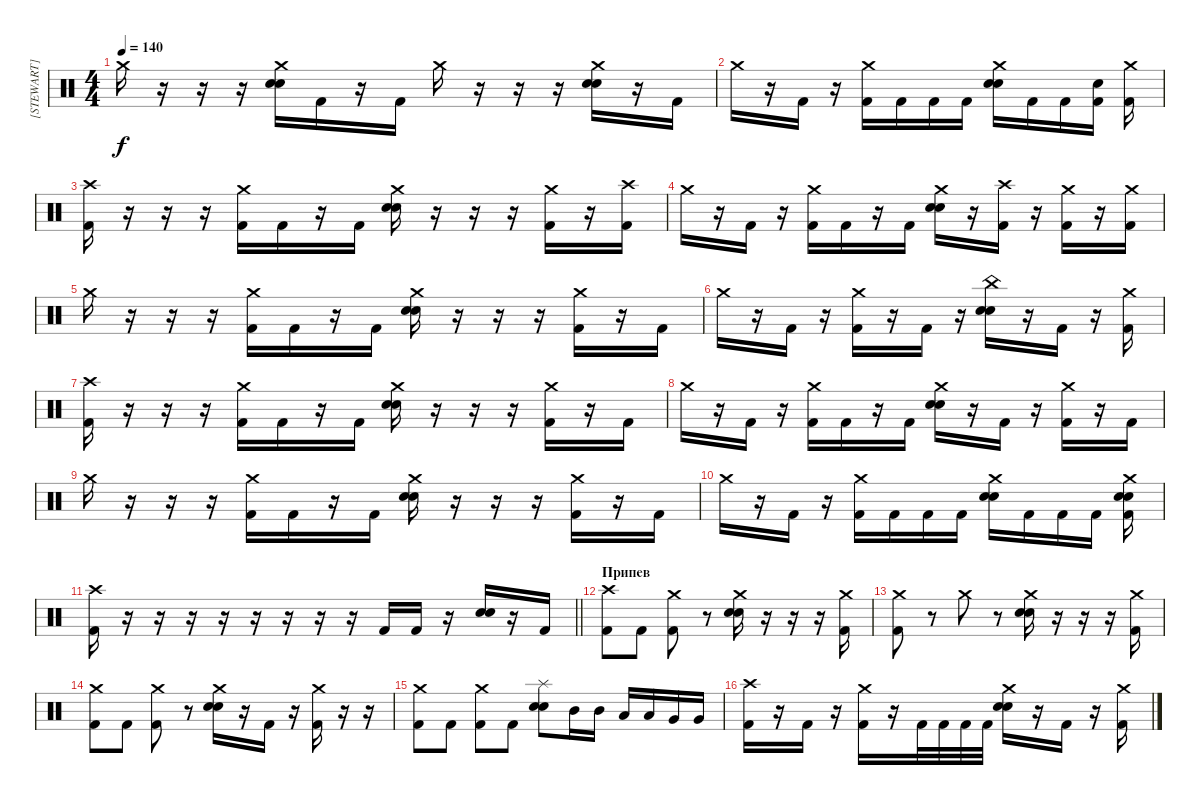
\track ("[STEWART]" "[STEWART]") {instrument percussion}
\staff {score}
\articulation defaults
\ts (4 4)
\tempo 140
\clef neutral
\ks c "Crash medium (hit)".16{dy f}
r.16 r.16 r.16 ("Crash medium (hit)" "Electric Snare (hit)" "Snare (hit) 2").16 "Kick (hit) 2".16 r.16 "Kick (hit) 2".16 "Crash medium (hit)".16 r.16 r.16 r.16 ("Crash medium (hit)" "Electric Snare (hit)" "Snare (hit) 2").16 r.16 "Kick (hit) 2".16 |
"Crash medium (hit)".16 r.16 "Kick (hit) 2".16 r.16 ("Crash medium (hit)" "Kick (hit) 2").16 "Kick (hit) 2".16 "Kick (hit) 2".16 "Kick (hit) 2".16 ("Crash medium (hit)" "Electric Snare (hit)" "Snare (hit) 2").16 "Kick (hit) 2".16 "Kick (hit) 2".16 ("Snare (hit) 2" "Kick (hit) 2").16 ("Crash medium (hit)" "Kick (hit) 2").16 |
("Crash high (hit)" "Kick (hit) 2").16 r.16 r.16 r.16 ("Crash medium (hit)" "Kick (hit) 2").16 "Kick (hit) 2".16 r.16 "Kick (hit) 2".16 ("Crash medium (hit)" "Electric Snare (hit)" "Snare (hit) 2").16 r.16 r.16 r.16 ("Crash medium (hit)" "Kick (hit) 2").16 r.16 ("Crash high (hit)" "Kick (hit) 2").16 |
"Crash medium (hit)".16 r.16 "Kick (hit) 2".16 r.16 ("Crash medium (hit)" "Kick (hit) 2").16 "Kick (hit) 2".16 r.16 "Kick (hit) 2".16 ("Crash medium (hit)" "Electric Snare (hit)" "Snare (hit) 2").16 r.16 ("Crash high (hit)" "Kick (hit) 2").16 r.16 ("Crash medium (hit)" "Kick (hit) 2").16 r.16 ("Crash medium (hit)" "Kick (hit) 2").16 |
"Crash medium (hit)".16 r.16 r.16 r.16 ("Crash medium (hit)" "Kick (hit) 2").16 "Kick (hit) 2".16 r.16 "Kick (hit) 2".16 ("Crash medium (hit)" "Electric Snare (hit)" "Snare (hit) 2").16 r.16 r.16 r.16 ("Crash medium (hit)" "Kick (hit) 2").16 r.16 "Kick (hit) 2".16 |
"Crash medium (hit)".16 r.16 "Kick (hit) 2".16 r.16 ("Crash medium (hit)" "Kick (hit) 2").16 r.16 "Kick (hit) 2".16 r.16 ("China (hit)" "Electric Snare (hit)" "Snare (hit) 2").16 r.16 "Kick (hit) 2".16 r.16 ("Crash medium (hit)" "Kick (hit) 2").16 |
("Crash high (hit)" "Kick (hit) 2").16 r.16 r.16 r.16 ("Crash medium (hit)" "Kick (hit) 2").16 "Kick (hit) 2".16 r.16 "Kick (hit) 2".16 ("Crash medium (hit)" "Electric Snare (hit)" "Snare (hit) 2").16 r.16 r.16 r.16 ("Crash medium (hit)" "Kick (hit) 2").16 r.16 "Kick (hit) 2".16 |
"Crash medium (hit)".16 r.16 "Kick (hit) 2".16 r.16 ("Crash medium (hit)" "Kick (hit) 2").16 "Kick (hit) 2".16 r.16 "Kick (hit) 2".16 ("Crash medium (hit)" "Electric Snare (hit)" "Snare (hit) 2").16 r.16 "Kick (hit) 2".16 r.16 ("Crash medium (hit)" "Kick (hit) 2").16 r.16 "Kick (hit) 2".16 |
"Crash medium (hit)".16 r.16 r.16 r.16 ("Crash medium (hit)" "Kick (hit) 2").16 "Kick (hit) 2".16 r.16 "Kick (hit) 2".16 ("Crash medium (hit)" "Electric Snare (hit)" "Snare (hit) 2").16 r.16 r.16 r.16 ("Crash medium (hit)" "Kick (hit) 2").16 r.16 "Kick (hit) 2".16 |
"Crash medium (hit)".16 r.16 "Kick (hit) 2".16 r.16 ("Crash medium (hit)" "Kick (hit) 2").16 "Kick (hit) 2".16 "Kick (hit) 2".16 "Kick (hit) 2".16 ("Crash medium (hit)" "Electric Snare (hit)" "Snare (hit) 2").16 "Kick (hit) 2".16 "Kick (hit) 2".16 "Kick (hit) 2".16 ("Crash medium (hit)" "Snare (hit) 2" "Electric Snare (hit)" "Kick (hit) 2").16 |
\barLineRight lightlight
("Crash high (hit)" "Kick (hit) 2").16 r.16 r.16 r.16 r.16 r.16 r.16 r.16 r.16 "Kick (hit) 2".16 "Kick (hit) 2".16 r.16 ("Snare (hit) 2" "Electric Snare (hit)").16 r.16 "Kick (hit) 2".16 |
\section ("" "Припев")
("Crash high (hit)" "Kick (hit) 2").8 "Kick (hit) 2".8 ("Crash medium (hit)" "Kick (hit) 2").8 r.8 ("Crash medium (hit)" "Electric Snare (hit)" "Snare (hit) 2").16 r.16 r.16 r.16 ("Crash medium (hit)" "Kick (hit) 2").16 |
("Crash medium (hit)" "Kick (hit) 2").8 r.8 "Crash medium (hit)".8 r.8 ("Crash medium (hit)" "Electric Snare (hit)" "Snare (hit) 2").16 r.16 r.16 r.16 ("Crash medium (hit)" "Kick (hit) 2").16 |
("Crash medium (hit)" "Kick (hit) 2").8 "Kick (hit) 2".8 ("Crash medium (hit)" "Kick (hit) 2").8 r.8 ("Crash medium (hit)" "Electric Snare (hit)" "Snare (hit) 2").16 r.16 "Kick (hit) 2".16 r.16 ("Crash medium (hit)" "Kick (hit) 2").16 r.16 r.16 |
("Crash medium (hit)" "Kick (hit) 2").8 "Kick (hit) 2".8 ("Crash medium (hit)" "Kick (hit) 2").8 "Kick (hit) 2".8 ("Splash (hit)" "Electric Snare (hit)" "Snare (hit) 2").8 "Mid Tom (hit)".16 "Mid Tom (hit)".16 "Low Tom (hit)".16 "Low Tom (hit)".16 "Very Low Tom (hit)".16 "Very Low Tom (hit)".16 |
("Crash high (hit)" "Kick (hit) 2").16 r.16 "Kick (hit) 2".16 r.16 ("Crash medium (hit)" "Kick (hit) 2").16 r.16 "Kick (hit) 2".32 "Kick (hit) 2".32 "Kick (hit) 2".32 "Kick (hit) 2".32 ("Crash medium (hit)" "Electric Snare (hit)" "Snare (hit) 2").16 r.16 "Kick (hit) 2".16 r.16 ("Crash medium (hit)" "Kick (hit) 2").16
